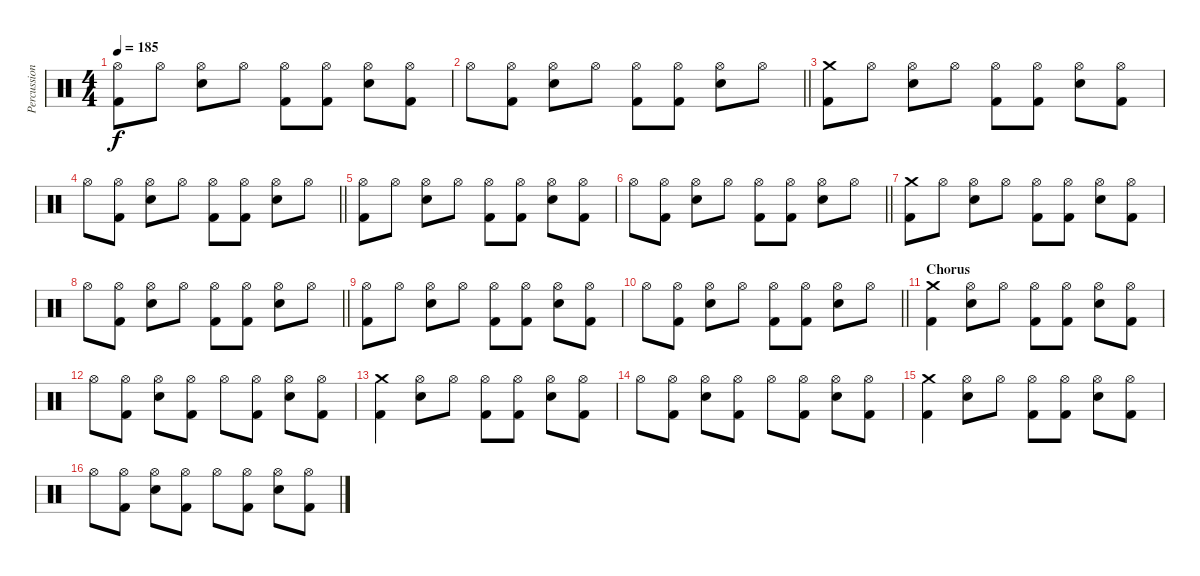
\track ("Percussion" "Percussion") {instrument percussion}
\staff {score}
\articulation defaults
\ts (4 4)
\tempo 185
\clef neutral
\ks c
("Hi-Hat (open)" "Kick (hit) 2").8{dy f} "Hi-Hat (open)".8 ("Hi-Hat (open)" "Electric Snare (hit)").8 "Hi-Hat (open)".8 ("Hi-Hat (open)" "Kick (hit) 2").8 ("Hi-Hat (open)" "Kick (hit) 2").8 ("Hi-Hat (open)" "Electric Snare (hit)").8 ("Hi-Hat (open)" "Kick (hit) 2").8 |
\barLineRight lightlight "Hi-Hat (open)".8
("Hi-Hat (open)" "Kick (hit) 2").8 ("Hi-Hat (open)" "Electric Snare (hit)").8 "Hi-Hat (open)".8 ("Hi-Hat (open)" "Kick (hit) 2").8 ("Hi-Hat (open)" "Kick (hit) 2").8 ("Hi-Hat (open)" "Electric Snare (hit)").8 "Hi-Hat (open)".8 |
("Crash medium (hit)" "Kick (hit) 2").8 "Hi-Hat (open)".8 ("Hi-Hat (open)" "Electric Snare (hit)").8 "Hi-Hat (open)".8 ("Hi-Hat (open)" "Kick (hit) 2").8 ("Hi-Hat (open)" "Kick (hit) 2").8 ("Hi-Hat (open)" "Electric Snare (hit)").8 ("Hi-Hat (open)" "Kick (hit) 2").8 |
\barLineRight lightlight "Hi-Hat (open)".8
("Hi-Hat (open)" "Kick (hit) 2").8 ("Hi-Hat (open)" "Electric Snare (hit)").8 "Hi-Hat (open)".8 ("Hi-Hat (open)" "Kick (hit) 2").8 ("Hi-Hat (open)" "Kick (hit) 2").8 ("Hi-Hat (open)" "Electric Snare (hit)").8 "Hi-Hat (open)".8 |
("Hi-Hat (open)" "Kick (hit) 2").8 "Hi-Hat (open)".8 ("Hi-Hat (open)" "Electric Snare (hit)").8 "Hi-Hat (open)".8 ("Hi-Hat (open)" "Kick (hit) 2").8 ("Hi-Hat (open)" "Kick (hit) 2").8 ("Hi-Hat (open)" "Electric Snare (hit)").8 ("Hi-Hat (open)" "Kick (hit) 2").8 |
\barLineRight lightlight "Hi-Hat (open)".8
("Hi-Hat (open)" "Kick (hit) 2").8 ("Hi-Hat (open)" "Electric Snare (hit)").8 "Hi-Hat (open)".8 ("Hi-Hat (open)" "Kick (hit) 2").8 ("Hi-Hat (open)" "Kick (hit) 2").8 ("Hi-Hat (open)" "Electric Snare (hit)").8 "Hi-Hat (open)".8 |
("Crash medium (hit)" "Kick (hit) 2").8 "Hi-Hat (open)".8 ("Hi-Hat (open)" "Electric Snare (hit)").8 "Hi-Hat (open)".8 ("Hi-Hat (open)" "Kick (hit) 2").8 ("Hi-Hat (open)" "Kick (hit) 2").8 ("Hi-Hat (open)" "Electric Snare (hit)").8 ("Hi-Hat (open)" "Kick (hit) 2").8 |
\barLineRight lightlight "Hi-Hat (open)".8
("Hi-Hat (open)" "Kick (hit) 2").8 ("Hi-Hat (open)" "Electric Snare (hit)").8 "Hi-Hat (open)".8 ("Hi-Hat (open)" "Kick (hit) 2").8 ("Hi-Hat (open)" "Kick (hit) 2").8 ("Hi-Hat (open)" "Electric Snare (hit)").8 "Hi-Hat (open)".8 |
("Hi-Hat (open)" "Kick (hit) 2").8 "Hi-Hat (open)".8 ("Hi-Hat (open)" "Electric Snare (hit)").8 "Hi-Hat (open)".8 ("Hi-Hat (open)" "Kick (hit) 2").8 ("Hi-Hat (open)" "Kick (hit) 2").8 ("Hi-Hat (open)" "Electric Snare (hit)").8 ("Hi-Hat (open)" "Kick (hit) 2").8 |
\barLineRight lightlight "Hi-Hat (open)".8
("Hi-Hat (open)" "Kick (hit) 2").8 ("Hi-Hat (open)" "Electric Snare (hit)").8 "Hi-Hat (open)".8 ("Hi-Hat (open)" "Kick (hit) 2").8 ("Hi-Hat (open)" "Kick (hit) 2").8 ("Hi-Hat (open)" "Electric Snare (hit)").8 "Hi-Hat (open)".8 |
\section ("" "Chorus")
("Crash medium (hit)" "Kick (hit) 2").4 ("Hi-Hat (open)" "Electric Snare (hit)").8 "Hi-Hat (open)".8 ("Hi-Hat (open)" "Kick (hit) 2").8 ("Hi-Hat (open)" "Kick (hit) 2").8 ("Hi-Hat (open)" "Electric Snare (hit)").8 ("Hi-Hat (open)" "Kick (hit) 2").8 |
"Hi-Hat (open)".8 ("Hi-Hat (open)" "Kick (hit) 2").8 ("Hi-Hat (open)" "Electric Snare (hit)").8 ("Hi-Hat (open)" "Kick (hit) 2").8 "Hi-Hat (open)".8 ("Hi-Hat (open)" "Kick (hit) 2").8 ("Hi-Hat (open)" "Electric Snare (hit)").8 ("Hi-Hat (open)" "Kick (hit) 2").8 |
("Crash medium (hit)" "Kick (hit) 2").4 ("Hi-Hat (open)" "Electric Snare (hit)").8 "Hi-Hat (open)".8 ("Hi-Hat (open)" "Kick (hit) 2").8 ("Hi-Hat (open)" "Kick (hit) 2").8 ("Hi-Hat (open)" "Electric Snare (hit)").8 ("Hi-Hat (open)" "Kick (hit) 2").8 |
"Hi-Hat (open)".8 ("Hi-Hat (open)" "Kick (hit) 2").8 ("Hi-Hat (open)" "Electric Snare (hit)").8 ("Hi-Hat (open)" "Kick (hit) 2").8 "Hi-Hat (open)".8 ("Hi-Hat (open)" "Kick (hit) 2").8 ("Hi-Hat (open)" "Electric Snare (hit)").8 ("Hi-Hat (open)" "Kick (hit) 2").8 |
("Crash medium (hit)" "Kick (hit) 2").4 ("Hi-Hat (open)" "Electric Snare (hit)").8 "Hi-Hat (open)".8 ("Hi-Hat (open)" "Kick (hit) 2").8 ("Hi-Hat (open)" "Kick (hit) 2").8 ("Hi-Hat (open)" "Electric Snare (hit)").8 ("Hi-Hat (open)" "Kick (hit) 2").8 |
"Hi-Hat (open)".8 ("Hi-Hat (open)" "Kick (hit) 2").8 ("Hi-Hat (open)" "Electric Snare (hit)").8 ("Hi-Hat (open)" "Kick (hit) 2").8 "Hi-Hat (open)".8 ("Hi-Hat (open)" "Kick (hit) 2").8 ("Hi-Hat (open)" "Electric Snare (hit)").8 ("Hi-Hat (open)" "Kick (hit) 2").8
